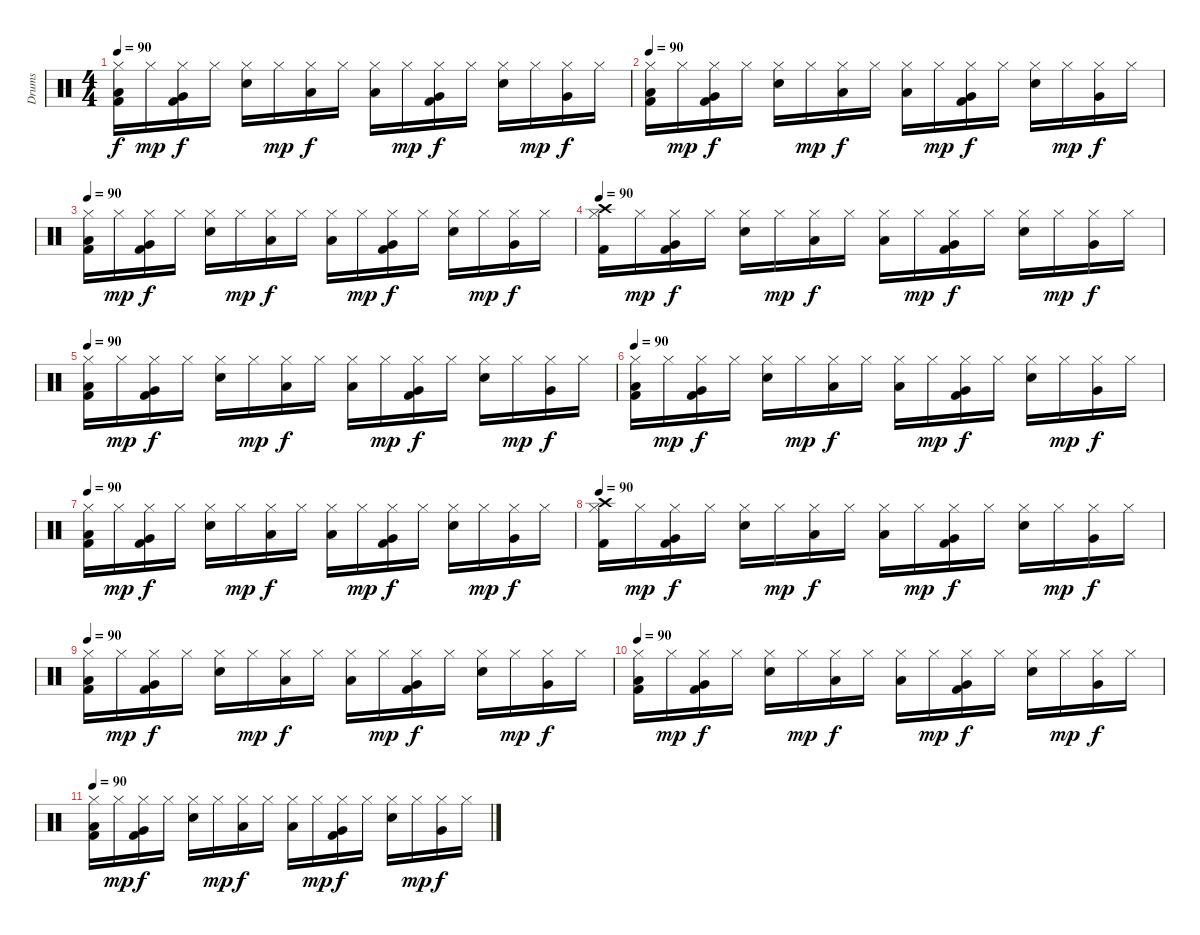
\track ("Drums" "Drums") {instrument percussion}
\staff {score}
\articulation defaults
\ts (4 4)
\tempo 90
\clef neutral
\ks c
("Low Floor Tom (hit)" "Kick (hit) 2" "Hi-Hat (closed)").16{dy f} "Hi-Hat (closed)".16{dy mp} ("Very Low Tom (hit)" "Kick (hit) 2" "Hi-Hat (closed)").16{dy f} "Hi-Hat (closed)".16 ("Snare (hit) 2" "Hi-Hat (closed)").16 "Hi-Hat (closed)".16{dy mp} ("Low Tom (hit)" "Hi-Hat (closed)").16{dy f} "Hi-Hat (closed)".16 ("Low Tom (hit)" "Hi-Hat (closed)").16 "Hi-Hat (closed)".16{dy mp} ("Very Low Tom (hit)" "Kick (hit) 2" "Hi-Hat (closed)").16{dy f} "Hi-Hat (closed)".16 ("Snare (hit) 2" "Hi-Hat (closed)").16 "Hi-Hat (closed)".16{dy mp} ("Very Low Tom (hit)" "Hi-Hat (closed)").16{dy f} "Hi-Hat (closed)".16 |
\tempo 90
("Low Floor Tom (hit)" "Kick (hit) 2" "Hi-Hat (closed)").16 "Hi-Hat (closed)".16{dy mp} ("Very Low Tom (hit)" "Kick (hit) 2" "Hi-Hat (closed)").16{dy f} "Hi-Hat (closed)".16 ("Snare (hit) 2" "Hi-Hat (closed)").16 "Hi-Hat (closed)".16{dy mp} ("Low Tom (hit)" "Hi-Hat (closed)").16{dy f} "Hi-Hat (closed)".16 ("Low Tom (hit)" "Hi-Hat (closed)").16 "Hi-Hat (closed)".16{dy mp} ("Very Low Tom (hit)" "Kick (hit) 2" "Hi-Hat (closed)").16{dy f} "Hi-Hat (closed)".16 ("Snare (hit) 2" "Hi-Hat (closed)").16 "Hi-Hat (closed)".16{dy mp} ("Very Low Tom (hit)" "Hi-Hat (closed)").16{dy f} "Hi-Hat (closed)".16 |
\tempo 90
("Low Floor Tom (hit)" "Kick (hit) 2" "Hi-Hat (closed)").16 "Hi-Hat (closed)".16{dy mp} ("Very Low Tom (hit)" "Kick (hit) 2" "Hi-Hat (closed)").16{dy f} "Hi-Hat (closed)".16 ("Snare (hit) 2" "Hi-Hat (closed)").16 "Hi-Hat (closed)".16{dy mp} ("Low Tom (hit)" "Hi-Hat (closed)").16{dy f} "Hi-Hat (closed)".16 ("Low Tom (hit)" "Hi-Hat (closed)").16 "Hi-Hat (closed)".16{dy mp} ("Very Low Tom (hit)" "Kick (hit) 2" "Hi-Hat (closed)").16{dy f} "Hi-Hat (closed)".16 ("Snare (hit) 2" "Hi-Hat (closed)").16 "Hi-Hat (closed)".16{dy mp} ("Very Low Tom (hit)" "Hi-Hat (closed)").16{dy f} "Hi-Hat (closed)".16 |
\tempo 90
("Crash high (hit)" "Kick (hit) 2" "Hi-Hat (closed)").16{volume 10} "Hi-Hat (closed)".16{dy mp} ("Very Low Tom (hit)" "Kick (hit) 2" "Hi-Hat (closed)").16{dy f} "Hi-Hat (closed)".16 ("Snare (hit) 2" "Hi-Hat (closed)").16 "Hi-Hat (closed)".16{dy mp} ("Low Tom (hit)" "Hi-Hat (closed)").16{dy f} "Hi-Hat (closed)".16 ("Low Tom (hit)" "Hi-Hat (closed)").16 "Hi-Hat (closed)".16{dy mp} ("Very Low Tom (hit)" "Kick (hit) 2" "Hi-Hat (closed)").16{dy f} "Hi-Hat (closed)".16 ("Snare (hit) 2" "Hi-Hat (closed)").16 "Hi-Hat (closed)".16{dy mp} ("Very Low Tom (hit)" "Hi-Hat (closed)").16{dy f} "Hi-Hat (closed)".16 |
\tempo 90
("Low Floor Tom (hit)" "Kick (hit) 2" "Hi-Hat (closed)").16 "Hi-Hat (closed)".16{dy mp} ("Very Low Tom (hit)" "Kick (hit) 2" "Hi-Hat (closed)").16{dy f} "Hi-Hat (closed)".16 ("Snare (hit) 2" "Hi-Hat (closed)").16 "Hi-Hat (closed)".16{dy mp} ("Low Tom (hit)" "Hi-Hat (closed)").16{dy f} "Hi-Hat (closed)".16 ("Low Tom (hit)" "Hi-Hat (closed)").16 "Hi-Hat (closed)".16{dy mp} ("Very Low Tom (hit)" "Kick (hit) 2" "Hi-Hat (closed)").16{dy f} "Hi-Hat (closed)".16 ("Snare (hit) 2" "Hi-Hat (closed)").16 "Hi-Hat (closed)".16{dy mp} ("Very Low Tom (hit)" "Hi-Hat (closed)").16{dy f} "Hi-Hat (closed)".16 |
\tempo 90
("Low Floor Tom (hit)" "Kick (hit) 2" "Hi-Hat (closed)").16{volume 7} "Hi-Hat (closed)".16{dy mp} ("Very Low Tom (hit)" "Kick (hit) 2" "Hi-Hat (closed)").16{dy f} "Hi-Hat (closed)".16 ("Snare (hit) 2" "Hi-Hat (closed)").16 "Hi-Hat (closed)".16{dy mp} ("Low Tom (hit)" "Hi-Hat (closed)").16{dy f} "Hi-Hat (closed)".16 ("Low Tom (hit)" "Hi-Hat (closed)").16 "Hi-Hat (closed)".16{dy mp} ("Very Low Tom (hit)" "Kick (hit) 2" "Hi-Hat (closed)").16{dy f} "Hi-Hat (closed)".16 ("Snare (hit) 2" "Hi-Hat (closed)").16 "Hi-Hat (closed)".16{dy mp} ("Very Low Tom (hit)" "Hi-Hat (closed)").16{dy f} "Hi-Hat (closed)".16 |
\tempo 90
("Low Floor Tom (hit)" "Kick (hit) 2" "Hi-Hat (closed)").16 "Hi-Hat (closed)".16{dy mp} ("Very Low Tom (hit)" "Kick (hit) 2" "Hi-Hat (closed)").16{dy f} "Hi-Hat (closed)".16 ("Snare (hit) 2" "Hi-Hat (closed)").16 "Hi-Hat (closed)".16{dy mp} ("Low Tom (hit)" "Hi-Hat (closed)").16{dy f} "Hi-Hat (closed)".16 ("Low Tom (hit)" "Hi-Hat (closed)").16 "Hi-Hat (closed)".16{dy mp} ("Very Low Tom (hit)" "Kick (hit) 2" "Hi-Hat (closed)").16{dy f} "Hi-Hat (closed)".16 ("Snare (hit) 2" "Hi-Hat (closed)").16 "Hi-Hat (closed)".16{dy mp} ("Very Low Tom (hit)" "Hi-Hat (closed)").16{dy f} "Hi-Hat (closed)".16 |
\tempo 90
("Crash high (hit)" "Kick (hit) 2" "Hi-Hat (closed)").16{volume 4} "Hi-Hat (closed)".16{dy mp} ("Very Low Tom (hit)" "Kick (hit) 2" "Hi-Hat (closed)").16{dy f} "Hi-Hat (closed)".16 ("Snare (hit) 2" "Hi-Hat (closed)").16 "Hi-Hat (closed)".16{dy mp} ("Low Tom (hit)" "Hi-Hat (closed)").16{dy f} "Hi-Hat (closed)".16 ("Low Tom (hit)" "Hi-Hat (closed)").16 "Hi-Hat (closed)".16{dy mp} ("Very Low Tom (hit)" "Kick (hit) 2" "Hi-Hat (closed)").16{dy f} "Hi-Hat (closed)".16 ("Snare (hit) 2" "Hi-Hat (closed)").16 "Hi-Hat (closed)".16{dy mp} ("Very Low Tom (hit)" "Hi-Hat (closed)").16{dy f} "Hi-Hat (closed)".16 |
\tempo 90
("Low Floor Tom (hit)" "Kick (hit) 2" "Hi-Hat (closed)").16 "Hi-Hat (closed)".16{dy mp} ("Very Low Tom (hit)" "Kick (hit) 2" "Hi-Hat (closed)").16{dy f} "Hi-Hat (closed)".16 ("Snare (hit) 2" "Hi-Hat (closed)").16 "Hi-Hat (closed)".16{dy mp} ("Low Tom (hit)" "Hi-Hat (closed)").16{dy f} "Hi-Hat (closed)".16 ("Low Tom (hit)" "Hi-Hat (closed)").16 "Hi-Hat (closed)".16{dy mp} ("Very Low Tom (hit)" "Kick (hit) 2" "Hi-Hat (closed)").16{dy f} "Hi-Hat (closed)".16 ("Snare (hit) 2" "Hi-Hat (closed)").16 "Hi-Hat (closed)".16{dy mp} ("Very Low Tom (hit)" "Hi-Hat (closed)").16{dy f} "Hi-Hat (closed)".16 |
\tempo 90
("Low Floor Tom (hit)" "Kick (hit) 2" "Hi-Hat (closed)").16{volume 0} "Hi-Hat (closed)".16{dy mp} ("Very Low Tom (hit)" "Kick (hit) 2" "Hi-Hat (closed)").16{dy f} "Hi-Hat (closed)".16 ("Snare (hit) 2" "Hi-Hat (closed)").16 "Hi-Hat (closed)".16{dy mp} ("Low Tom (hit)" "Hi-Hat (closed)").16{dy f} "Hi-Hat (closed)".16 ("Low Tom (hit)" "Hi-Hat (closed)").16 "Hi-Hat (closed)".16{dy mp} ("Very Low Tom (hit)" "Kick (hit) 2" "Hi-Hat (closed)").16{dy f} "Hi-Hat (closed)".16 ("Snare (hit) 2" "Hi-Hat (closed)").16 "Hi-Hat (closed)".16{dy mp} ("Very Low Tom (hit)" "Hi-Hat (closed)").16{dy f} "Hi-Hat (closed)".16 |
\tempo 90
("Low Floor Tom (hit)" "Kick (hit) 2" "Hi-Hat (closed)").16 "Hi-Hat (closed)".16{dy mp} ("Very Low Tom (hit)" "Kick (hit) 2" "Hi-Hat (closed)").16{dy f} "Hi-Hat (closed)".16 ("Snare (hit) 2" "Hi-Hat (closed)").16 "Hi-Hat (closed)".16{dy mp} ("Low Tom (hit)" "Hi-Hat (closed)").16{dy f} "Hi-Hat (closed)".16 ("Low Tom (hit)" "Hi-Hat (closed)").16 "Hi-Hat (closed)".16{dy mp} ("Very Low Tom (hit)" "Kick (hit) 2" "Hi-Hat (closed)").16{dy f} "Hi-Hat (closed)".16 ("Snare (hit) 2" "Hi-Hat (closed)").16 "Hi-Hat (closed)".16{dy mp} ("Very Low Tom (hit)" "Hi-Hat (closed)").16{dy f} "Hi-Hat (closed)".16
